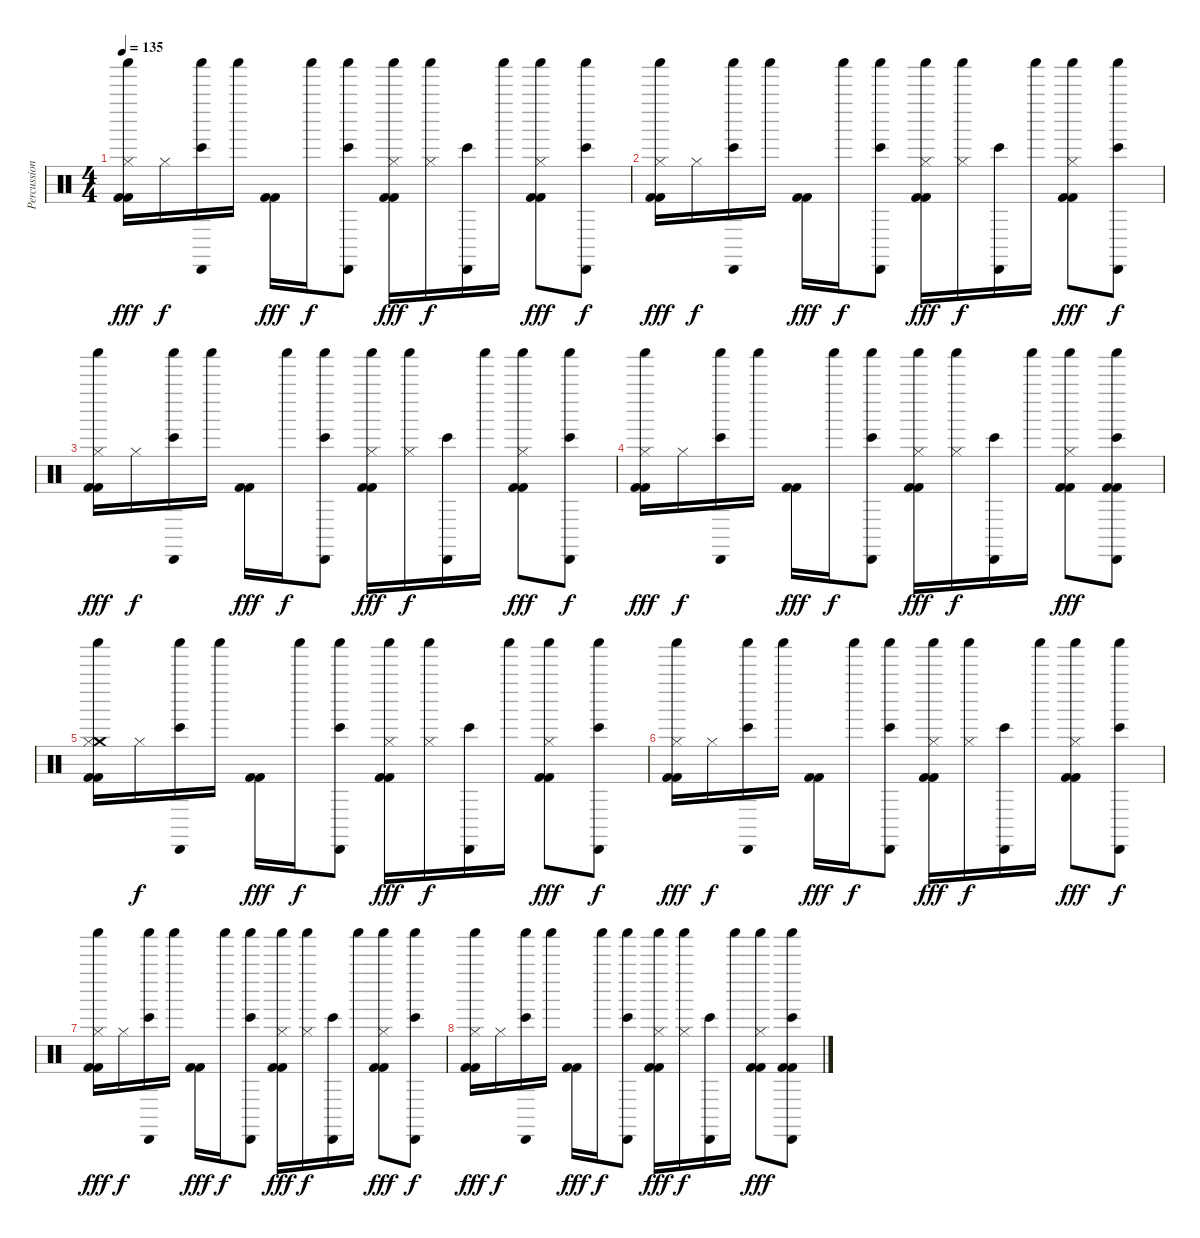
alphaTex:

\track ("Percussion" "Percussion") {instrument percussion}
\staff {score}
\articulation defaults
\ts (4 4)
\tempo 135
\clef neutral
\ks c
("Hi-Hat (closed)" "Kick (hit) 2" "Kick (hit) 2" "Shaker (hit)").16{dy fff} "Hi-Hat (closed)".16{dy f} ("Cabasa (hit)" "Bongo High (hit)" "Shaker (hit)").16 "Shaker (hit)".16 ("Kick (hit) 2" "Kick (hit) 2").16{dy fff} "Shaker (hit)".16{dy f} ("Cabasa (hit)" "Bongo High (hit)" "Shaker (hit)").8 ("Hi-Hat (closed)" "Kick (hit) 2" "Kick (hit) 2" "Shaker (hit)").16{dy fff} ("Hi-Hat (closed)" "Shaker (hit)").16{dy f} ("Cabasa (hit)" "Bongo High (hit)").16 "Shaker (hit)".16 ("Hi-Hat (closed)" "Kick (hit) 2" "Kick (hit) 2" "Shaker (hit)").8{dy fff} ("Cabasa (hit)" "Bongo High (hit)" "Shaker (hit)").8{dy f} |
("Hi-Hat (closed)" "Kick (hit) 2" "Kick (hit) 2" "Shaker (hit)").16{dy fff} "Hi-Hat (closed)".16{dy f} ("Cabasa (hit)" "Bongo High (hit)" "Shaker (hit)").16 "Shaker (hit)".16 ("Kick (hit) 2" "Kick (hit) 2").16{dy fff} "Shaker (hit)".16{dy f} ("Cabasa (hit)" "Bongo High (hit)" "Shaker (hit)").8 ("Hi-Hat (closed)" "Kick (hit) 2" "Kick (hit) 2" "Shaker (hit)").16{dy fff} ("Hi-Hat (closed)" "Shaker (hit)").16{dy f} ("Cabasa (hit)" "Bongo High (hit)").16 "Shaker (hit)".16 ("Hi-Hat (closed)" "Kick (hit) 2" "Kick (hit) 2" "Shaker (hit)").8{dy fff} ("Cabasa (hit)" "Bongo High (hit)" "Shaker (hit)").8{dy f} |
("Hi-Hat (closed)" "Kick (hit) 2" "Kick (hit) 2" "Shaker (hit)").16{dy fff} "Hi-Hat (closed)".16{dy f} ("Cabasa (hit)" "Bongo High (hit)" "Shaker (hit)").16 "Shaker (hit)".16 ("Kick (hit) 2" "Kick (hit) 2").16{dy fff} "Shaker (hit)".16{dy f} ("Cabasa (hit)" "Bongo High (hit)" "Shaker (hit)").8 ("Hi-Hat (closed)" "Kick (hit) 2" "Kick (hit) 2" "Shaker (hit)").16{dy fff} ("Hi-Hat (closed)" "Shaker (hit)").16{dy f} ("Cabasa (hit)" "Bongo High (hit)").16 "Shaker (hit)".16 ("Hi-Hat (closed)" "Kick (hit) 2" "Kick (hit) 2" "Shaker (hit)").8{dy fff} ("Cabasa (hit)" "Bongo High (hit)" "Shaker (hit)").8{dy f} |
("Hi-Hat (closed)" "Kick (hit) 2" "Kick (hit) 2" "Shaker (hit)").16{dy fff} "Hi-Hat (closed)".16{dy f} ("Cabasa (hit)" "Bongo High (hit)" "Shaker (hit)").16 "Shaker (hit)".16 ("Kick (hit) 2" "Kick (hit) 2").16{dy fff} "Shaker (hit)".16{dy f} ("Cabasa (hit)" "Bongo High (hit)" "Shaker (hit)").8 ("Hi-Hat (closed)" "Kick (hit) 2" "Kick (hit) 2" "Shaker (hit)").16{dy fff} ("Hi-Hat (closed)" "Shaker (hit)").16{dy f} ("Cabasa (hit)" "Bongo High (hit)").16 "Shaker (hit)".16 ("Hi-Hat (closed)" "Kick (hit) 2" "Kick (hit) 2" "Shaker (hit)").8{dy fff} ("Cabasa (hit)" "Bongo High (hit)" "Kick (hit) 2" "Kick (hit) 2" "Shaker (hit)").8 |
("Crash medium (hit)" "Hi-Hat (closed)" "Kick (hit) 2" "Kick (hit) 2" "Shaker (hit)").16 "Hi-Hat (closed)".16{dy f} ("Cabasa (hit)" "Bongo High (hit)" "Shaker (hit)").16 "Shaker (hit)".16 ("Kick (hit) 2" "Kick (hit) 2").16{dy fff} "Shaker (hit)".16{dy f} ("Cabasa (hit)" "Bongo High (hit)" "Shaker (hit)").8 ("Hi-Hat (closed)" "Kick (hit) 2" "Kick (hit) 2" "Shaker (hit)").16{dy fff} ("Hi-Hat (closed)" "Shaker (hit)").16{dy f} ("Cabasa (hit)" "Bongo High (hit)").16 "Shaker (hit)".16 ("Hi-Hat (closed)" "Kick (hit) 2" "Kick (hit) 2" "Shaker (hit)").8{dy fff} ("Cabasa (hit)" "Bongo High (hit)" "Shaker (hit)").8{dy f} |
("Hi-Hat (closed)" "Kick (hit) 2" "Kick (hit) 2" "Shaker (hit)").16{dy fff} "Hi-Hat (closed)".16{dy f} ("Cabasa (hit)" "Bongo High (hit)" "Shaker (hit)").16 "Shaker (hit)".16 ("Kick (hit) 2" "Kick (hit) 2").16{dy fff} "Shaker (hit)".16{dy f} ("Cabasa (hit)" "Bongo High (hit)" "Shaker (hit)").8 ("Hi-Hat (closed)" "Kick (hit) 2" "Kick (hit) 2" "Shaker (hit)").16{dy fff} ("Hi-Hat (closed)" "Shaker (hit)").16{dy f} ("Cabasa (hit)" "Bongo High (hit)").16 "Shaker (hit)".16 ("Hi-Hat (closed)" "Kick (hit) 2" "Kick (hit) 2" "Shaker (hit)").8{dy fff} ("Cabasa (hit)" "Bongo High (hit)" "Shaker (hit)").8{dy f} |
("Hi-Hat (closed)" "Kick (hit) 2" "Kick (hit) 2" "Shaker (hit)").16{dy fff} "Hi-Hat (closed)".16{dy f} ("Cabasa (hit)" "Bongo High (hit)" "Shaker (hit)").16 "Shaker (hit)".16 ("Kick (hit) 2" "Kick (hit) 2").16{dy fff} "Shaker (hit)".16{dy f} ("Cabasa (hit)" "Bongo High (hit)" "Shaker (hit)").8 ("Hi-Hat (closed)" "Kick (hit) 2" "Kick (hit) 2" "Shaker (hit)").16{dy fff} ("Hi-Hat (closed)" "Shaker (hit)").16{dy f} ("Cabasa (hit)" "Bongo High (hit)").16 "Shaker (hit)".16 ("Hi-Hat (closed)" "Kick (hit) 2" "Kick (hit) 2" "Shaker (hit)").8{dy fff} ("Cabasa (hit)" "Bongo High (hit)" "Shaker (hit)").8{dy f} |
("Hi-Hat (closed)" "Kick (hit) 2" "Kick (hit) 2" "Shaker (hit)").16{dy fff} "Hi-Hat (closed)".16{dy f} ("Cabasa (hit)" "Bongo High (hit)" "Shaker (hit)").16 "Shaker (hit)".16 ("Kick (hit) 2" "Kick (hit) 2").16{dy fff} "Shaker (hit)".16{dy f} ("Cabasa (hit)" "Bongo High (hit)" "Shaker (hit)").8 ("Hi-Hat (closed)" "Kick (hit) 2" "Kick (hit) 2" "Shaker (hit)").16{dy fff} ("Hi-Hat (closed)" "Shaker (hit)").16{dy f} ("Cabasa (hit)" "Bongo High (hit)").16 "Shaker (hit)".16 ("Hi-Hat (closed)" "Kick (hit) 2" "Kick (hit) 2" "Shaker (hit)").8{dy fff} ("Cabasa (hit)" "Bongo High (hit)" "Kick (hit) 2" "Kick (hit) 2" "Shaker (hit)").8
